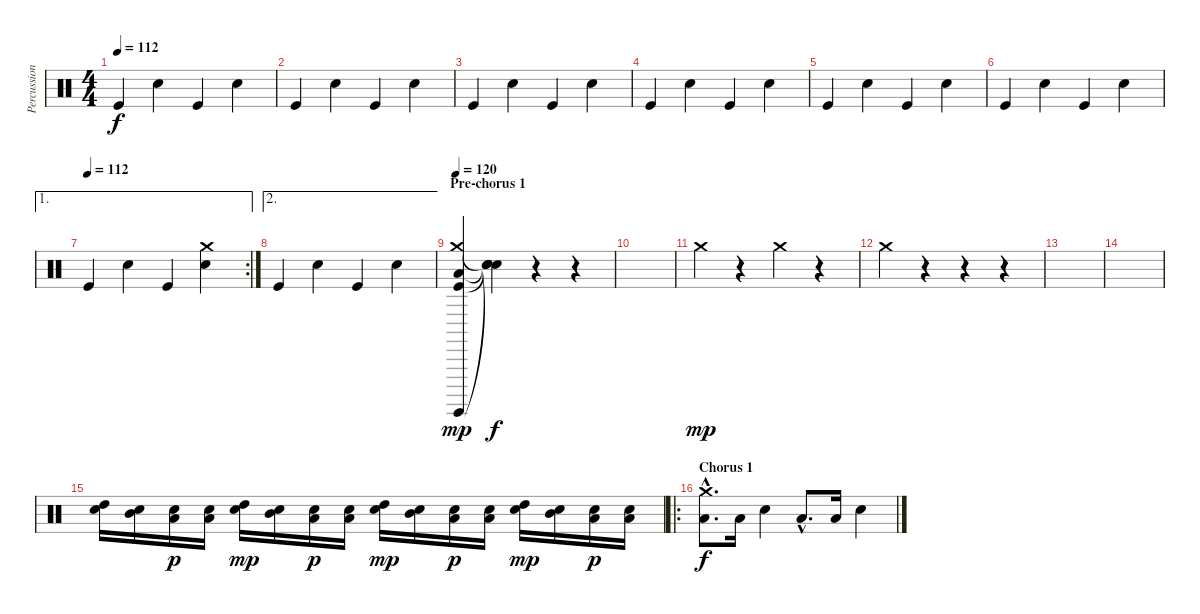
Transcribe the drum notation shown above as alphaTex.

\track ("Percussion 1" "Percussion") {instrument percussion}
\staff {score}
\articulation defaults
\ts (4 4)
\tempo 112
\clef neutral
\ks c "Kick (hit)".4{dy f} "Electric Snare (hit)".4 "Kick (hit)".4 "Electric Snare (hit)".4
|
"Kick (hit)".4 "Electric Snare (hit)".4 "Kick (hit)".4 "Electric Snare (hit)".4 |
"Kick (hit)".4 "Electric Snare (hit)".4 "Kick (hit)".4 "Electric Snare (hit)".4 |
"Kick (hit)".4 "Electric Snare (hit)".4 "Kick (hit)".4 "Electric Snare (hit)".4 |
"Kick (hit)".4 "Electric Snare (hit)".4 "Kick (hit)".4 "Electric Snare (hit)".4 |
"Kick (hit)".4 "Electric Snare (hit)".4 "Kick (hit)".4 "Electric Snare (hit)".4 |
\ae 1
\rc 2
\tempo (112)
"Kick (hit)".4 "Electric Snare (hit)".4 "Kick (hit)".4 ("Electric Snare (hit)" "Crash medium (hit)").4 |
\ae 2 "Kick (hit)".4 "Electric Snare (hit)".4 "Kick (hit)".4 "Electric Snare (hit)".4
|
\section ("" "Pre-chorus 1 ")
\tempo 120
("Kick (hit)" "Crash medium (hit)" "Surdo (hit)" "Low Tom (hit)").4{dy mp} ("Snare (hit)"{t} "Snare (hit)"{t} "Snare (hit)"{t} "Snare (hit)"{t}).4{dy f} r.4 r.4 |
|
"Crash medium (hit)".4{dy mp} r.4 "Crash medium (hit)".4 r.4 |
"Crash medium (hit)".4 r.4 r.4 r.4 |
|
|
("High Tom (hit)" "Electric Snare (hit)").16 ("Mid Tom (hit)" "Electric Snare (hit)").16 ("Low Tom (hit)" "Electric Snare (hit)").16{dy p} ("Low Tom (hit)" "Electric Snare (hit)").16 ("High Tom (hit)" "Electric Snare (hit)").16{dy mp} ("Mid Tom (hit)" "Electric Snare (hit)").16 ("Low Tom (hit)" "Electric Snare (hit)").16{dy p} ("Low Tom (hit)" "Electric Snare (hit)").16 ("High Tom (hit)" "Electric Snare (hit)").16{dy mp} ("Mid Tom (hit)" "Electric Snare (hit)").16 ("Low Tom (hit)" "Electric Snare (hit)").16{dy p} ("Low Tom (hit)" "Electric Snare (hit)").16 ("High Tom (hit)" "Electric Snare (hit)").16{dy mp} ("Mid Tom (hit)" "Electric Snare (hit)").16 ("Low Tom (hit)" "Electric Snare (hit)").16{dy p} ("Low Tom (hit)" "Electric Snare (hit)").16 |
\ro
\section ("" "Chorus 1")
("Crash medium (hit)"{hac} "Low Tom (hit)"{hac}).8{d dy f} "Low Tom (hit)".16 "Electric Snare (hit)".4 "Low Tom (hit)"{hac}.8{d} "Low Tom (hit)".16 "Electric Snare (hit)".4
